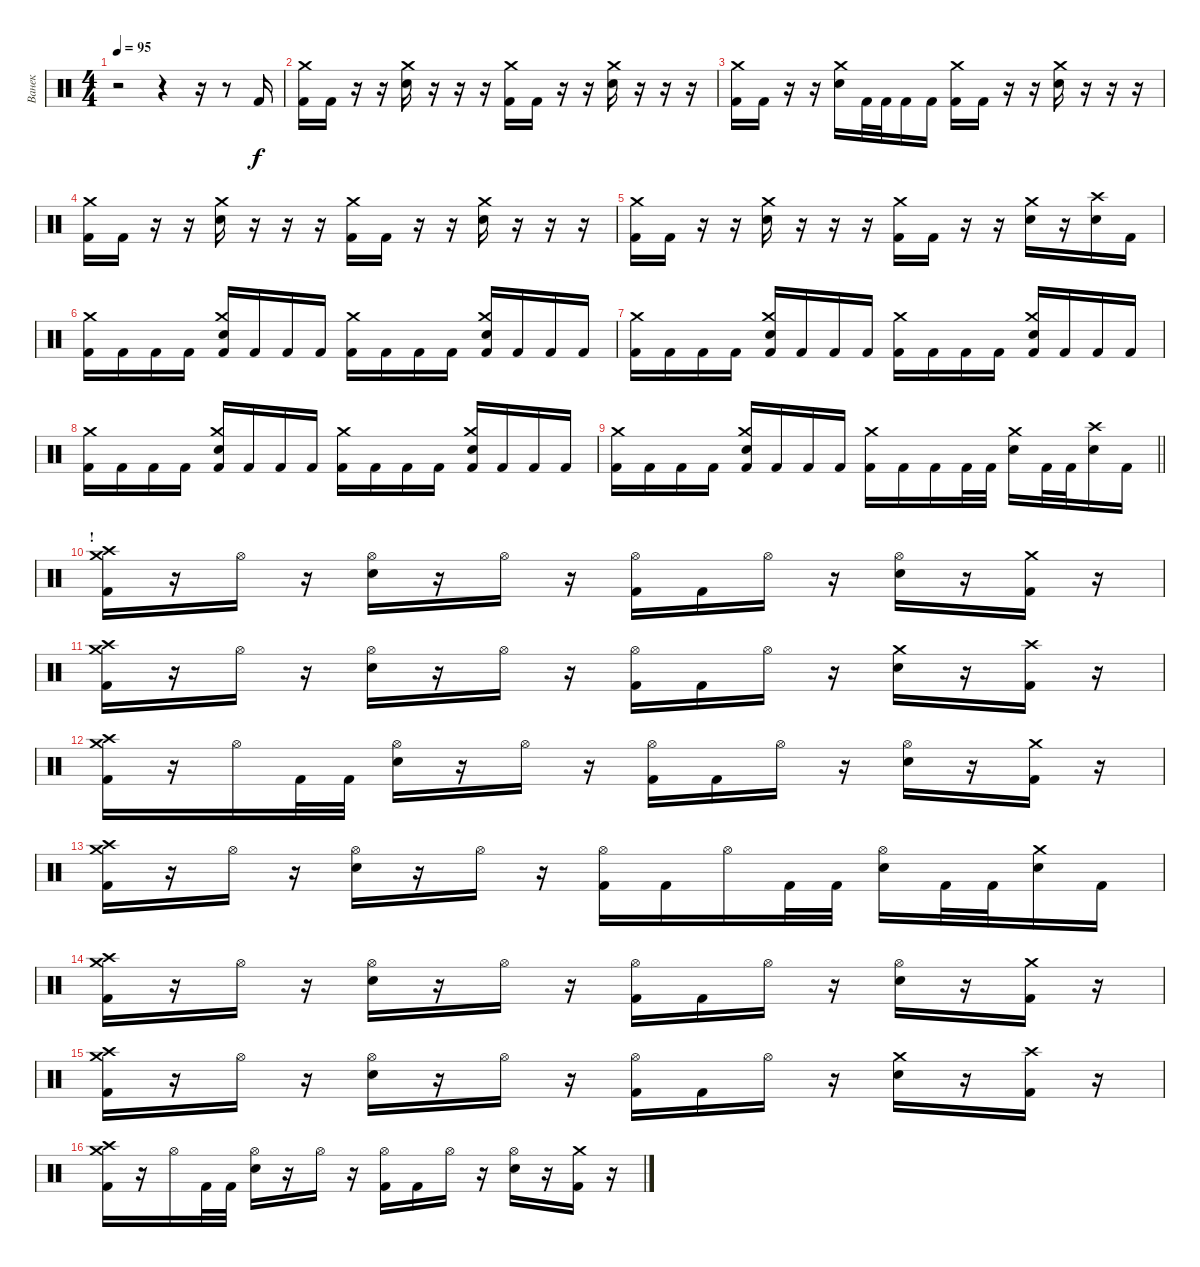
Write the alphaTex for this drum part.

\track ("Ванек" "Ванек") {instrument percussion}
\staff {score}
\articulation defaults
\ts (4 4)
\tempo 95
\clef neutral
\ks c
r.2{dy f} r.4 r.16 r.8 "Kick (hit) 2".16 |
("Crash medium (hit)" "Kick (hit) 2").16 "Kick (hit) 2".16 r.16 r.16 ("Crash medium (hit)" "Snare (hit) 2").16 r.16 r.16 r.16 ("Crash medium (hit)" "Kick (hit) 2").16 "Kick (hit) 2".16 r.16 r.16 ("Crash medium (hit)" "Snare (hit) 2").16 r.16 r.16 r.16 |
("Crash medium (hit)" "Kick (hit) 2").16 "Kick (hit) 2".16 r.16 r.16 ("Crash medium (hit)" "Snare (hit) 2").16 "Kick (hit) 2".32 "Kick (hit) 2".32 "Kick (hit) 2".16 "Kick (hit) 2".16 ("Crash medium (hit)" "Kick (hit) 2").16 "Kick (hit) 2".16 r.16 r.16 ("Crash medium (hit)" "Snare (hit) 2").16 r.16 r.16 r.16 |
("Crash medium (hit)" "Kick (hit) 2").16 "Kick (hit) 2".16 r.16 r.16 ("Crash medium (hit)" "Snare (hit) 2").16 r.16 r.16 r.16 ("Crash medium (hit)" "Kick (hit) 2").16 "Kick (hit) 2".16 r.16 r.16 ("Crash medium (hit)" "Snare (hit) 2").16 r.16 r.16 r.16 |
("Crash medium (hit)" "Kick (hit) 2").16 "Kick (hit) 2".16 r.16 r.16 ("Crash medium (hit)" "Snare (hit) 2").16 r.16 r.16 r.16 ("Crash medium (hit)" "Kick (hit) 2").16 "Kick (hit) 2".16 r.16 r.16 ("Crash medium (hit)" "Snare (hit) 2").16 r.16 ("Crash high (hit)" "Snare (hit) 2").16 "Kick (hit) 2".16 |
("Crash medium (hit)" "Kick (hit) 2").16 "Kick (hit) 2".16 "Kick (hit) 2".16 "Kick (hit) 2".16 ("Crash medium (hit)" "Snare (hit) 2" "Kick (hit) 2").16 "Kick (hit) 2".16 "Kick (hit) 2".16 "Kick (hit) 2".16 ("Crash medium (hit)" "Kick (hit) 2").16 "Kick (hit) 2".16 "Kick (hit) 2".16 "Kick (hit) 2".16 ("Crash medium (hit)" "Snare (hit) 2" "Kick (hit) 2").16 "Kick (hit) 2".16 "Kick (hit) 2".16 "Kick (hit) 2".16 |
("Crash medium (hit)" "Kick (hit) 2").16 "Kick (hit) 2".16 "Kick (hit) 2".16 "Kick (hit) 2".16 ("Crash medium (hit)" "Snare (hit) 2" "Kick (hit) 2").16 "Kick (hit) 2".16 "Kick (hit) 2".16 "Kick (hit) 2".16 ("Crash medium (hit)" "Kick (hit) 2").16 "Kick (hit) 2".16 "Kick (hit) 2".16 "Kick (hit) 2".16 ("Crash medium (hit)" "Snare (hit) 2" "Kick (hit) 2").16 "Kick (hit) 2".16 "Kick (hit) 2".16 "Kick (hit) 2".16 |
("Crash medium (hit)" "Kick (hit) 2").16 "Kick (hit) 2".16 "Kick (hit) 2".16 "Kick (hit) 2".16 ("Crash medium (hit)" "Snare (hit) 2" "Kick (hit) 2").16 "Kick (hit) 2".16 "Kick (hit) 2".16 "Kick (hit) 2".16 ("Crash medium (hit)" "Kick (hit) 2").16 "Kick (hit) 2".16 "Kick (hit) 2".16 "Kick (hit) 2".16 ("Crash medium (hit)" "Snare (hit) 2" "Kick (hit) 2").16 "Kick (hit) 2".16 "Kick (hit) 2".16 "Kick (hit) 2".16 |
\barLineRight lightlight
("Crash medium (hit)" "Kick (hit) 2").16 "Kick (hit) 2".16 "Kick (hit) 2".16 "Kick (hit) 2".16 ("Crash medium (hit)" "Snare (hit) 2" "Kick (hit) 2").16 "Kick (hit) 2".16 "Kick (hit) 2".16 "Kick (hit) 2".16 ("Crash medium (hit)" "Kick (hit) 2").16 "Kick (hit) 2".16 "Kick (hit) 2".16 "Kick (hit) 2".32 "Kick (hit) 2".32 ("Crash medium (hit)" "Snare (hit) 2").16 "Kick (hit) 2".32 "Kick (hit) 2".32 ("Crash high (hit)" "Snare (hit) 2").16 "Kick (hit) 2".16 |
\section ("" "!")
("Crash high (hit)" "Crash medium (hit)" "Kick (hit) 2").16 r.16 "Hi-Hat (open)".16 r.16 ("Hi-Hat (open)" "Snare (hit) 2").16 r.16 "Hi-Hat (open)".16 r.16 ("Hi-Hat (open)" "Kick (hit) 2").16 "Kick (hit) 2".16 "Hi-Hat (open)".16 r.16 ("Hi-Hat (open)" "Snare (hit) 2").16 r.16 ("Crash medium (hit)" "Kick (hit) 2").16 r.16 |
("Crash high (hit)" "Crash medium (hit)" "Kick (hit) 2").16 r.16 "Hi-Hat (open)".16 r.16 ("Hi-Hat (open)" "Snare (hit) 2").16 r.16 "Hi-Hat (open)".16 r.16 ("Hi-Hat (open)" "Kick (hit) 2").16 "Kick (hit) 2".16 "Hi-Hat (open)".16 r.16 ("Crash medium (hit)" "Snare (hit) 2").16 r.16 ("Crash high (hit)" "Kick (hit) 2").16 r.16 |
("Crash high (hit)" "Crash medium (hit)" "Kick (hit) 2").16 r.16 "Hi-Hat (open)".16 "Kick (hit) 2".32 "Kick (hit) 2".32 ("Hi-Hat (open)" "Snare (hit) 2").16 r.16 "Hi-Hat (open)".16 r.16 ("Hi-Hat (open)" "Kick (hit) 2").16 "Kick (hit) 2".16 "Hi-Hat (open)".16 r.16 ("Hi-Hat (open)" "Snare (hit) 2").16 r.16 ("Crash medium (hit)" "Kick (hit) 2").16 r.16 |
("Crash high (hit)" "Crash medium (hit)" "Kick (hit) 2").16 r.16 "Hi-Hat (open)".16 r.16 ("Hi-Hat (open)" "Snare (hit) 2").16 r.16 "Hi-Hat (open)".16 r.16 ("Hi-Hat (open)" "Kick (hit) 2").16 "Kick (hit) 2".16 "Hi-Hat (open)".16 "Kick (hit) 2".32 "Kick (hit) 2".32 ("Hi-Hat (open)" "Snare (hit) 2").16 "Kick (hit) 2".32 "Kick (hit) 2".32 ("Crash medium (hit)" "Snare (hit) 2").16 "Kick (hit) 2".16 |
("Crash high (hit)" "Crash medium (hit)" "Kick (hit) 2").16 r.16 "Hi-Hat (open)".16 r.16 ("Hi-Hat (open)" "Snare (hit) 2").16 r.16 "Hi-Hat (open)".16 r.16 ("Hi-Hat (open)" "Kick (hit) 2").16 "Kick (hit) 2".16 "Hi-Hat (open)".16 r.16 ("Hi-Hat (open)" "Snare (hit) 2").16 r.16 ("Crash medium (hit)" "Kick (hit) 2").16 r.16 |
("Crash high (hit)" "Crash medium (hit)" "Kick (hit) 2").16 r.16 "Hi-Hat (open)".16 r.16 ("Hi-Hat (open)" "Snare (hit) 2").16 r.16 "Hi-Hat (open)".16 r.16 ("Hi-Hat (open)" "Kick (hit) 2").16 "Kick (hit) 2".16 "Hi-Hat (open)".16 r.16 ("Crash medium (hit)" "Snare (hit) 2").16 r.16 ("Crash high (hit)" "Kick (hit) 2").16 r.16 |
("Crash high (hit)" "Crash medium (hit)" "Kick (hit) 2").16 r.16 "Hi-Hat (open)".16 "Kick (hit) 2".32 "Kick (hit) 2".32 ("Hi-Hat (open)" "Snare (hit) 2").16 r.16 "Hi-Hat (open)".16 r.16 ("Hi-Hat (open)" "Kick (hit) 2").16 "Kick (hit) 2".16 "Hi-Hat (open)".16 r.16 ("Hi-Hat (open)" "Snare (hit) 2").16 r.16 ("Crash medium (hit)" "Kick (hit) 2").16 r.16
